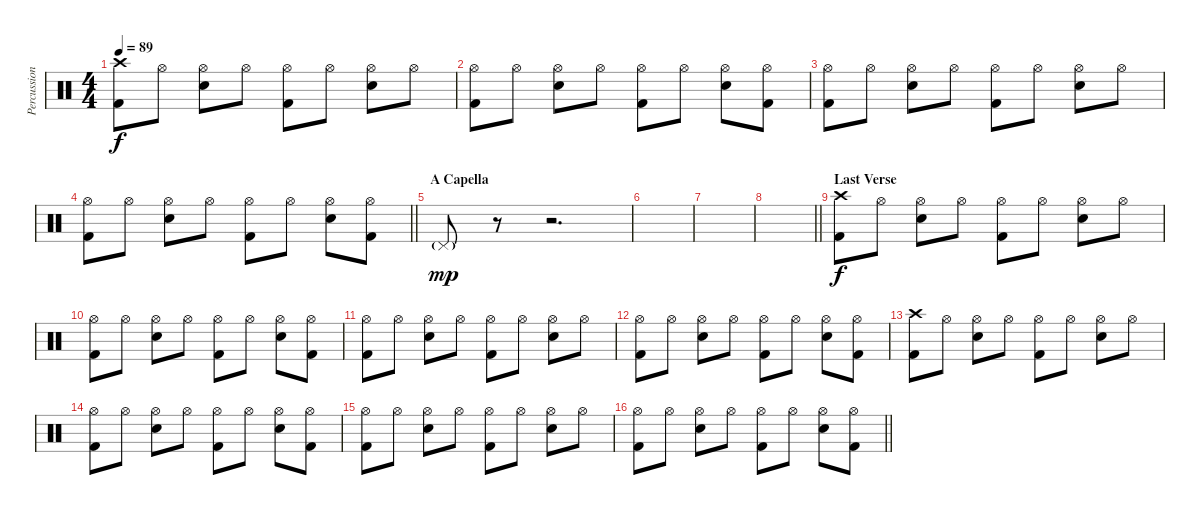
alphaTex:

\track ("Percussion" "Percussion") {instrument percussion}
\staff {score}
\articulation defaults
\ts (4 4)
\tempo 89
\clef neutral
\ks c
("Crash high (hit)" "Kick (hit) 2").8{dy f} "Hi-Hat (open)".8 ("Hi-Hat (open)" "Electric Snare (hit)").8 "Hi-Hat (open)".8 ("Hi-Hat (open)" "Kick (hit) 2").8 "Hi-Hat (open)".8 ("Hi-Hat (open)" "Electric Snare (hit)").8 "Hi-Hat (open)".8 |
("Hi-Hat (open)" "Kick (hit) 2").8 "Hi-Hat (open)".8 ("Hi-Hat (open)" "Electric Snare (hit)").8 "Hi-Hat (open)".8 ("Hi-Hat (open)" "Kick (hit) 2").8 "Hi-Hat (open)".8 ("Hi-Hat (open)" "Electric Snare (hit)").8 ("Hi-Hat (open)" "Kick (hit) 2").8 |
("Hi-Hat (open)" "Kick (hit) 2").8 "Hi-Hat (open)".8 ("Hi-Hat (open)" "Electric Snare (hit)").8 "Hi-Hat (open)".8 ("Hi-Hat (open)" "Kick (hit) 2").8 "Hi-Hat (open)".8 ("Hi-Hat (open)" "Electric Snare (hit)").8 "Hi-Hat (open)".8 |
\barLineRight lightlight
("Hi-Hat (open)" "Kick (hit) 2").8 "Hi-Hat (open)".8 ("Hi-Hat (open)" "Electric Snare (hit)").8 "Hi-Hat (open)".8 ("Hi-Hat (open)" "Kick (hit) 2").8 "Hi-Hat (open)".8 ("Hi-Hat (open)" "Electric Snare (hit)").8 ("Hi-Hat (open)" "Kick (hit) 2").8 |
\section ("" "A Capella")
"Pedal Hi-Hat (hit)"{g}.8{dy mp} r.8 r.2{d} |
|
|
\barLineRight lightlight
|
\section ("" "Last Verse")
("Crash high (hit)" "Kick (hit) 2").8{dy f} "Hi-Hat (open)".8 ("Hi-Hat (open)" "Electric Snare (hit)").8 "Hi-Hat (open)".8 ("Hi-Hat (open)" "Kick (hit) 2").8 "Hi-Hat (open)".8 ("Hi-Hat (open)" "Electric Snare (hit)").8 "Hi-Hat (open)".8 |
("Hi-Hat (open)" "Kick (hit) 2").8 "Hi-Hat (open)".8 ("Hi-Hat (open)" "Electric Snare (hit)").8 "Hi-Hat (open)".8 ("Hi-Hat (open)" "Kick (hit) 2").8 "Hi-Hat (open)".8 ("Hi-Hat (open)" "Electric Snare (hit)").8 ("Hi-Hat (open)" "Kick (hit) 2").8 |
("Hi-Hat (open)" "Kick (hit) 2").8 "Hi-Hat (open)".8 ("Hi-Hat (open)" "Electric Snare (hit)").8 "Hi-Hat (open)".8 ("Hi-Hat (open)" "Kick (hit) 2").8 "Hi-Hat (open)".8 ("Hi-Hat (open)" "Electric Snare (hit)").8 "Hi-Hat (open)".8 |
("Hi-Hat (open)" "Kick (hit) 2").8 "Hi-Hat (open)".8 ("Hi-Hat (open)" "Electric Snare (hit)").8 "Hi-Hat (open)".8 ("Hi-Hat (open)" "Kick (hit) 2").8 "Hi-Hat (open)".8 ("Hi-Hat (open)" "Electric Snare (hit)").8 ("Hi-Hat (open)" "Kick (hit) 2").8 |
("Crash high (hit)" "Kick (hit) 2").8 "Hi-Hat (open)".8 ("Hi-Hat (open)" "Electric Snare (hit)").8 "Hi-Hat (open)".8 ("Hi-Hat (open)" "Kick (hit) 2").8 "Hi-Hat (open)".8 ("Hi-Hat (open)" "Electric Snare (hit)").8 "Hi-Hat (open)".8 |
("Hi-Hat (open)" "Kick (hit) 2").8 "Hi-Hat (open)".8 ("Hi-Hat (open)" "Electric Snare (hit)").8 "Hi-Hat (open)".8 ("Hi-Hat (open)" "Kick (hit) 2").8 "Hi-Hat (open)".8 ("Hi-Hat (open)" "Electric Snare (hit)").8 ("Hi-Hat (open)" "Kick (hit) 2").8 |
("Hi-Hat (open)" "Kick (hit) 2").8 "Hi-Hat (open)".8 ("Hi-Hat (open)" "Electric Snare (hit)").8 "Hi-Hat (open)".8 ("Hi-Hat (open)" "Kick (hit) 2").8 "Hi-Hat (open)".8 ("Hi-Hat (open)" "Electric Snare (hit)").8 "Hi-Hat (open)".8 |
\barLineRight lightlight
("Hi-Hat (open)" "Kick (hit) 2").8 "Hi-Hat (open)".8 ("Hi-Hat (open)" "Electric Snare (hit)").8 "Hi-Hat (open)".8 ("Hi-Hat (open)" "Kick (hit) 2").8 "Hi-Hat (open)".8 ("Hi-Hat (open)" "Electric Snare (hit)").8 ("Hi-Hat (open)" "Kick (hit) 2").8
